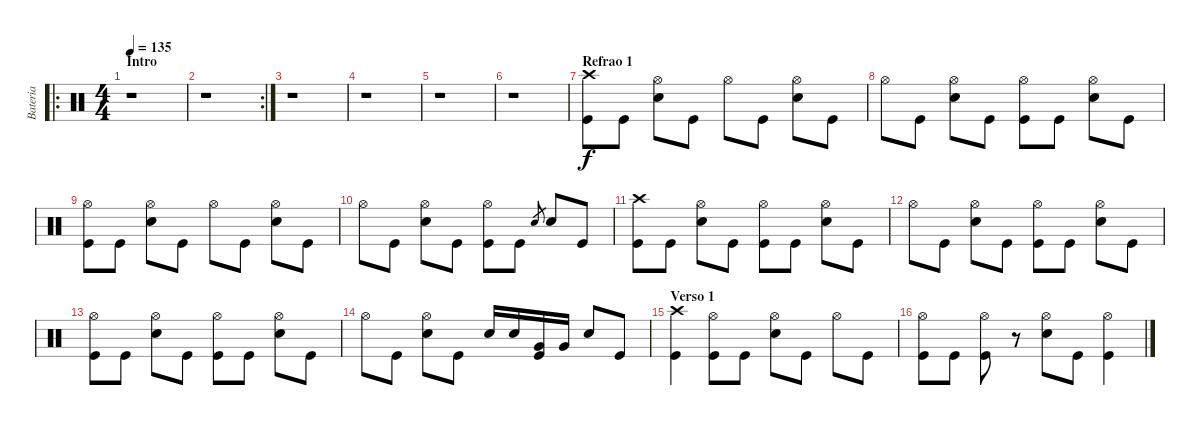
\track ("Bateria" "Bateria") {instrument percussion}
\staff {score}
\articulation defaults
\ro
\ts (4 4)
\section ("" "Intro")
\tempo 135
\clef neutral
\ks c
r.1{dy f} |
\rc 2
r.1 |
r.1 |
r.1 |
r.1 |
r.1 |
\section ("" "Refrao 1")
("Crash high (hit)" "Kick (hit)").8 "Kick (hit)".8 ("Hi-Hat (open)" "Snare (hit) 2").8 "Kick (hit)".8 "Hi-Hat (open)".8 "Kick (hit)".8 ("Hi-Hat (open)" "Snare (hit) 2").8 "Kick (hit)".8 |
"Hi-Hat (open)".8 "Kick (hit)".8 ("Hi-Hat (open)" "Snare (hit) 2").8 "Kick (hit)".8 ("Hi-Hat (open)" "Kick (hit)").8 "Kick (hit)".8 ("Hi-Hat (open)" "Snare (hit) 2").8 "Kick (hit)".8 |
("Hi-Hat (open)" "Kick (hit)").8 "Kick (hit)".8 ("Hi-Hat (open)" "Snare (hit) 2").8 "Kick (hit)".8 "Hi-Hat (open)".8 "Kick (hit)".8 ("Hi-Hat (open)" "Snare (hit) 2").8 "Kick (hit)".8 |
"Hi-Hat (open)".8 "Kick (hit)".8 ("Hi-Hat (open)" "Snare (hit) 2").8 "Kick (hit)".8 ("Hi-Hat (open)" "Kick (hit)").8 "Kick (hit)".8 "Snare (hit) 2".8{gr} "Snare (hit) 2".8 "Kick (hit)".8 |
("Crash high (hit)" "Kick (hit)").8 "Kick (hit)".8 ("Hi-Hat (open)" "Snare (hit) 2").8 "Kick (hit)".8 ("Hi-Hat (open)" "Kick (hit)").8 "Kick (hit)".8 ("Hi-Hat (open)" "Snare (hit) 2").8 "Kick (hit)".8 |
"Hi-Hat (open)".8 "Kick (hit)".8 ("Hi-Hat (open)" "Snare (hit) 2").8 "Kick (hit)".8 ("Hi-Hat (open)" "Kick (hit)").8 "Kick (hit)".8 ("Hi-Hat (open)" "Snare (hit) 2").8 "Kick (hit)".8 |
("Hi-Hat (open)" "Kick (hit)").8 "Kick (hit)".8 ("Hi-Hat (open)" "Snare (hit) 2").8 "Kick (hit)".8 ("Hi-Hat (open)" "Kick (hit)").8 "Kick (hit)".8 ("Hi-Hat (open)" "Snare (hit) 2").8 "Kick (hit)".8 |
"Hi-Hat (open)".8 "Kick (hit)".8 ("Hi-Hat (open)" "Snare (hit) 2").8 "Kick (hit)".8 "Snare (hit) 2".16 "Snare (hit) 2".16 ("Very Low Tom (hit)" "Kick (hit)").16 "Very Low Tom (hit)".16 "Snare (hit) 2".8 "Kick (hit)".8 |
\section ("" "Verso 1")
("Crash high (hit)" "Kick (hit)").4 ("Hi-Hat (open)" "Kick (hit)").8 "Kick (hit)".8 ("Hi-Hat (open)" "Snare (hit) 2").8 "Kick (hit)".8 "Hi-Hat (open)".8 "Kick (hit)".8 |
("Hi-Hat (open)" "Kick (hit)").8 "Kick (hit)".8 ("Hi-Hat (open)" "Kick (hit)").8 r.8 ("Hi-Hat (open)" "Snare (hit) 2").8 "Kick (hit)".8 ("Hi-Hat (open)" "Kick (hit)").4
